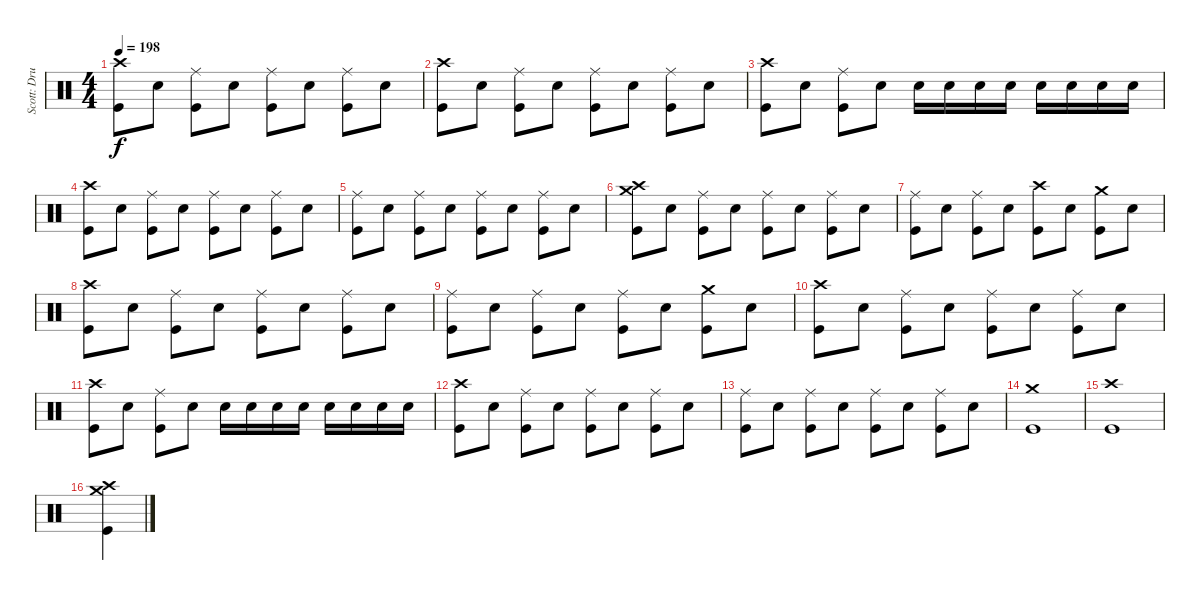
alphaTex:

\track ("Scott: Drums" "Scott: Dru") {instrument percussion}
\staff {score}
\articulation defaults
\ts (4 4)
\tempo 198
\clef neutral
\ks c
("Crash high (hit)" "Kick (hit)").8{dy f} "Electric Snare (hit)".8 ("Ride (middle)" "Kick (hit)").8 "Electric Snare (hit)".8 ("Ride (middle)" "Kick (hit)").8 "Electric Snare (hit)".8 ("Ride (middle)" "Kick (hit)").8 "Electric Snare (hit)".8 |
("Crash high (hit)" "Kick (hit)").8 "Electric Snare (hit)".8 ("Ride (middle)" "Kick (hit)").8 "Electric Snare (hit)".8 ("Ride (middle)" "Kick (hit)").8 "Electric Snare (hit)".8 ("Ride (middle)" "Kick (hit)").8 "Electric Snare (hit)".8 |
("Crash high (hit)" "Kick (hit)").8 "Electric Snare (hit)".8 ("Ride (middle)" "Kick (hit)").8 "Electric Snare (hit)".8 "Electric Snare (hit)".16 "Electric Snare (hit)".16 "Electric Snare (hit)".16 "Electric Snare (hit)".16 "Electric Snare (hit)".16 "Electric Snare (hit)".16 "Electric Snare (hit)".16 "Electric Snare (hit)".16 |
("Crash high (hit)" "Kick (hit)").8 "Electric Snare (hit)".8 ("Ride (middle)" "Kick (hit)").8 "Electric Snare (hit)".8 ("Ride (middle)" "Kick (hit)").8 "Electric Snare (hit)".8 ("Ride (middle)" "Kick (hit)").8 "Electric Snare (hit)".8 |
("Ride (middle)" "Kick (hit)").8 "Electric Snare (hit)".8 ("Ride (middle)" "Kick (hit)").8 "Electric Snare (hit)".8 ("Ride (middle)" "Kick (hit)").8 "Electric Snare (hit)".8 ("Ride (middle)" "Kick (hit)").8 "Electric Snare (hit)".8 |
("Crash high (hit)" "Crash medium (hit)" "Kick (hit)").8 "Electric Snare (hit)".8 ("Ride (middle)" "Kick (hit)").8 "Electric Snare (hit)".8 ("Ride (middle)" "Kick (hit)").8 "Electric Snare (hit)".8 ("Ride (middle)" "Kick (hit)").8 "Electric Snare (hit)".8 |
("Ride (middle)" "Kick (hit)").8 "Electric Snare (hit)".8 ("Ride (middle)" "Kick (hit)").8 "Electric Snare (hit)".8 ("Crash high (hit)" "Kick (hit)").8 "Electric Snare (hit)".8 ("Crash medium (hit)" "Kick (hit)").8 "Electric Snare (hit)".8 |
("Crash high (hit)" "Kick (hit)").8 "Electric Snare (hit)".8 ("Ride (middle)" "Kick (hit)").8 "Electric Snare (hit)".8 ("Ride (middle)" "Kick (hit)").8 "Electric Snare (hit)".8 ("Ride (middle)" "Kick (hit)").8 "Electric Snare (hit)".8 |
("Ride (middle)" "Kick (hit)").8 "Electric Snare (hit)".8 ("Ride (middle)" "Kick (hit)").8 "Electric Snare (hit)".8 ("Ride (middle)" "Kick (hit)").8 "Electric Snare (hit)".8 ("Crash medium (hit)" "Kick (hit)").8 "Electric Snare (hit)".8 |
("Crash high (hit)" "Kick (hit)").8 "Electric Snare (hit)".8 ("Ride (middle)" "Kick (hit)").8 "Electric Snare (hit)".8 ("Ride (middle)" "Kick (hit)").8 "Electric Snare (hit)".8 ("Ride (middle)" "Kick (hit)").8 "Electric Snare (hit)".8 |
("Crash high (hit)" "Kick (hit)").8 "Electric Snare (hit)".8 ("Ride (middle)" "Kick (hit)").8 "Electric Snare (hit)".8 "Electric Snare (hit)".16 "Electric Snare (hit)".16 "Electric Snare (hit)".16 "Electric Snare (hit)".16 "Electric Snare (hit)".16 "Electric Snare (hit)".16 "Electric Snare (hit)".16 "Electric Snare (hit)".16 |
("Crash high (hit)" "Kick (hit)").8 "Electric Snare (hit)".8 ("Ride (middle)" "Kick (hit)").8 "Electric Snare (hit)".8 ("Ride (middle)" "Kick (hit)").8 "Electric Snare (hit)".8 ("Ride (middle)" "Kick (hit)").8 "Electric Snare (hit)".8 |
("Ride (middle)" "Kick (hit)").8 "Electric Snare (hit)".8 ("Ride (middle)" "Kick (hit)").8 "Electric Snare (hit)".8 ("Ride (middle)" "Kick (hit)").8 "Electric Snare (hit)".8 ("Ride (middle)" "Kick (hit)").8 "Electric Snare (hit)".8 |
("Crash medium (hit)" "Kick (hit)").1 |
("Crash high (hit)" "Kick (hit)").1 |
("Crash high (hit)" "Crash medium (hit)" "Kick (hit)").4
